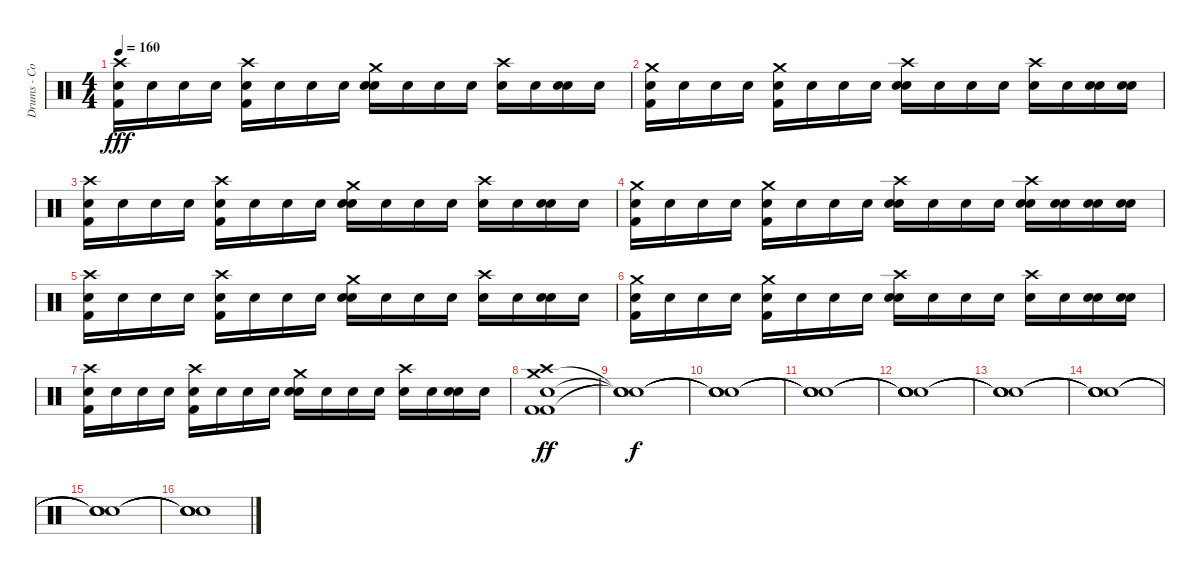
\track ("Drums - Colby" "Drums - Co") {instrument percussion}
\staff {score}
\articulation defaults
\ts (4 4)
\tempo 160
\clef neutral
\ks c
("Snare (hit)" "Kick (hit) 2" "Crash high (hit)").16{dy fff} "Snare (hit)".16 "Snare (hit)".16 "Snare (hit)".16 ("Snare (hit)" "Kick (hit) 2" "Crash high (hit)").16 "Snare (hit)".16 "Snare (hit)".16 "Snare (hit)".16 ("Snare (hit)" "Snare (hit) 2" "Crash medium (hit)").16 "Snare (hit)".16 "Snare (hit)".16 "Snare (hit)".16 ("Snare (hit)" "Crash high (hit)").16 "Snare (hit)".16 ("Snare (hit)" "Snare (hit) 2").16 "Snare (hit)".16 |
("Snare (hit)" "Kick (hit) 2" "Crash medium (hit)").16 "Snare (hit)".16 "Snare (hit)".16 "Snare (hit)".16 ("Snare (hit)" "Kick (hit) 2" "Crash medium (hit)").16 "Snare (hit)".16 "Snare (hit)".16 "Snare (hit)".16 ("Snare (hit)" "Snare (hit) 2" "Crash high (hit)").16 "Snare (hit)".16 "Snare (hit)".16 "Snare (hit)".16 ("Snare (hit)" "Crash high (hit)").16 "Snare (hit)".16 ("Snare (hit)" "Snare (hit) 2").16 ("Snare (hit)" "Snare (hit) 2").16 |
("Snare (hit)" "Kick (hit) 2" "Crash high (hit)").16 "Snare (hit)".16 "Snare (hit)".16 "Snare (hit)".16 ("Snare (hit)" "Kick (hit) 2" "Crash high (hit)").16 "Snare (hit)".16 "Snare (hit)".16 "Snare (hit)".16 ("Snare (hit)" "Snare (hit) 2" "Crash medium (hit)").16 "Snare (hit)".16 "Snare (hit)".16 "Snare (hit)".16 ("Snare (hit)" "Crash high (hit)").16 "Snare (hit)".16 ("Snare (hit)" "Snare (hit) 2").16 "Snare (hit)".16 |
("Snare (hit)" "Kick (hit) 2" "Crash medium (hit)").16 "Snare (hit)".16 "Snare (hit)".16 "Snare (hit)".16 ("Snare (hit)" "Kick (hit) 2" "Crash medium (hit)").16 "Snare (hit)".16 "Snare (hit)".16 "Snare (hit)".16 ("Snare (hit)" "Snare (hit) 2" "Crash high (hit)").16 "Snare (hit)".16 "Snare (hit)".16 "Snare (hit)".16 ("Snare (hit)" "Snare (hit) 2" "Crash high (hit)").16 ("Snare (hit)" "Snare (hit) 2").16 ("Snare (hit)" "Snare (hit) 2").16 ("Snare (hit)" "Snare (hit) 2").16 |
("Snare (hit)" "Kick (hit) 2" "Crash high (hit)").16 "Snare (hit)".16 "Snare (hit)".16 "Snare (hit)".16 ("Snare (hit)" "Kick (hit) 2" "Crash high (hit)").16 "Snare (hit)".16 "Snare (hit)".16 "Snare (hit)".16 ("Snare (hit)" "Snare (hit) 2" "Crash medium (hit)").16 "Snare (hit)".16 "Snare (hit)".16 "Snare (hit)".16 ("Snare (hit)" "Crash high (hit)").16 "Snare (hit)".16 ("Snare (hit)" "Snare (hit) 2").16 "Snare (hit)".16 |
("Snare (hit)" "Kick (hit) 2" "Crash medium (hit)").16 "Snare (hit)".16 "Snare (hit)".16 "Snare (hit)".16 ("Snare (hit)" "Kick (hit) 2" "Crash medium (hit)").16 "Snare (hit)".16 "Snare (hit)".16 "Snare (hit)".16 ("Snare (hit)" "Snare (hit) 2" "Crash high (hit)").16 "Snare (hit)".16 "Snare (hit)".16 "Snare (hit)".16 ("Snare (hit)" "Crash high (hit)").16 "Snare (hit)".16 ("Snare (hit)" "Snare (hit) 2").16 ("Snare (hit)" "Snare (hit) 2").16 |
("Snare (hit)" "Kick (hit) 2" "Crash high (hit)").16 "Snare (hit)".16 "Snare (hit)".16 "Snare (hit)".16 ("Snare (hit)" "Kick (hit) 2" "Crash high (hit)").16 "Snare (hit)".16 "Snare (hit)".16 "Snare (hit)".16 ("Snare (hit)" "Snare (hit) 2" "Crash medium (hit)").16 "Snare (hit)".16 "Snare (hit)".16 "Snare (hit)".16 ("Snare (hit)" "Crash high (hit)").16 "Snare (hit)".16 ("Snare (hit)" "Snare (hit) 2").16 "Snare (hit)".16 |
("Snare (hit)" "Kick (hit) 2" "Kick (hit) 2" "Crash medium (hit)" "Crash high (hit)").1{dy ff} |
("Snare (hit)"{t} "Snare (hit)"{t} "Snare (hit)"{t} "Snare (hit)"{t}).1{dy f} |
("Snare (hit)"{t} "Snare (hit)"{t} "Snare (hit)"{t} "Snare (hit)"{t}).1 |
("Snare (hit)"{t} "Snare (hit)"{t} "Snare (hit)"{t} "Snare (hit)"{t}).1 |
("Snare (hit)"{t} "Snare (hit)"{t} "Snare (hit)"{t} "Snare (hit)"{t}).1 |
("Snare (hit)"{t} "Snare (hit)"{t} "Snare (hit)"{t} "Snare (hit)"{t}).1 |
("Snare (hit)"{t} "Snare (hit)"{t} "Snare (hit)"{t} "Snare (hit)"{t}).1 |
("Snare (hit)"{t} "Snare (hit)"{t} "Snare (hit)"{t} "Snare (hit)"{t}).1 |
("Snare (hit)"{t} "Snare (hit)"{t} "Snare (hit)"{t} "Snare (hit)"{t}).1
